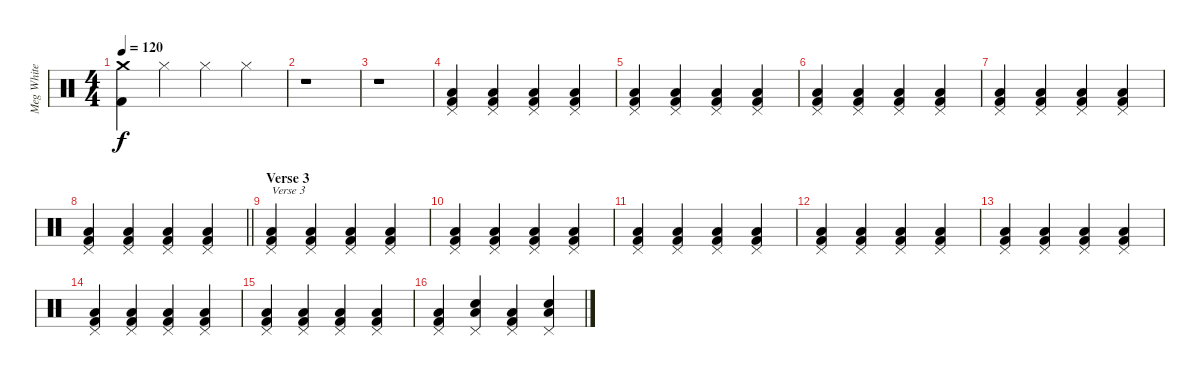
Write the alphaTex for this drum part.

\track ("Meg White" "Meg White") {instrument percussion}
\staff {score}
\articulation defaults
\ts (4 4)
\tempo 120
\clef neutral
\ks c
("Crash medium (hit)" "Kick (hit) 2").4{dy f} "Hi-Hat (closed)".4 "Hi-Hat (closed)".4 "Hi-Hat (closed)".4 |
r.1 |
r.1 |
("Pedal Hi-Hat (hit)" "Low Floor Tom (hit)" "Kick (hit) 2").4 ("Pedal Hi-Hat (hit)" "Low Floor Tom (hit)" "Kick (hit) 2").4 ("Pedal Hi-Hat (hit)" "Low Floor Tom (hit)" "Kick (hit) 2").4 ("Pedal Hi-Hat (hit)" "Low Floor Tom (hit)" "Kick (hit) 2").4 |
("Pedal Hi-Hat (hit)" "Low Floor Tom (hit)" "Kick (hit) 2").4 ("Pedal Hi-Hat (hit)" "Low Floor Tom (hit)" "Kick (hit) 2").4 ("Pedal Hi-Hat (hit)" "Low Floor Tom (hit)" "Kick (hit) 2").4 ("Pedal Hi-Hat (hit)" "Low Floor Tom (hit)" "Kick (hit) 2").4 |
("Pedal Hi-Hat (hit)" "Low Floor Tom (hit)" "Kick (hit) 2").4 ("Pedal Hi-Hat (hit)" "Low Floor Tom (hit)" "Kick (hit) 2").4 ("Pedal Hi-Hat (hit)" "Low Floor Tom (hit)" "Kick (hit) 2").4 ("Pedal Hi-Hat (hit)" "Low Floor Tom (hit)" "Kick (hit) 2").4 |
("Pedal Hi-Hat (hit)" "Low Floor Tom (hit)" "Kick (hit) 2").4 ("Pedal Hi-Hat (hit)" "Low Floor Tom (hit)" "Kick (hit) 2").4 ("Pedal Hi-Hat (hit)" "Low Floor Tom (hit)" "Kick (hit) 2").4 ("Pedal Hi-Hat (hit)" "Low Floor Tom (hit)" "Kick (hit) 2").4 |
\barLineRight lightlight
("Pedal Hi-Hat (hit)" "Low Floor Tom (hit)" "Kick (hit) 2").4 ("Pedal Hi-Hat (hit)" "Low Floor Tom (hit)" "Kick (hit) 2").4 ("Pedal Hi-Hat (hit)" "Low Floor Tom (hit)" "Kick (hit) 2").4 ("Pedal Hi-Hat (hit)" "Low Floor Tom (hit)" "Kick (hit) 2").4 |
\section ("" "Verse 3")
("Pedal Hi-Hat (hit)" "Low Floor Tom (hit)" "Kick (hit) 2").4{txt "Verse 3"} ("Pedal Hi-Hat (hit)" "Low Floor Tom (hit)" "Kick (hit) 2").4 ("Pedal Hi-Hat (hit)" "Low Floor Tom (hit)" "Kick (hit) 2").4 ("Pedal Hi-Hat (hit)" "Low Floor Tom (hit)" "Kick (hit) 2").4 |
("Pedal Hi-Hat (hit)" "Low Floor Tom (hit)" "Kick (hit) 2").4 ("Pedal Hi-Hat (hit)" "Low Floor Tom (hit)" "Kick (hit) 2").4 ("Pedal Hi-Hat (hit)" "Low Floor Tom (hit)" "Kick (hit) 2").4 ("Pedal Hi-Hat (hit)" "Low Floor Tom (hit)" "Kick (hit) 2").4 |
("Pedal Hi-Hat (hit)" "Low Floor Tom (hit)" "Kick (hit) 2").4 ("Pedal Hi-Hat (hit)" "Low Floor Tom (hit)" "Kick (hit) 2").4 ("Pedal Hi-Hat (hit)" "Low Floor Tom (hit)" "Kick (hit) 2").4 ("Pedal Hi-Hat (hit)" "Low Floor Tom (hit)" "Kick (hit) 2").4 |
("Pedal Hi-Hat (hit)" "Low Floor Tom (hit)" "Kick (hit) 2").4 ("Pedal Hi-Hat (hit)" "Low Floor Tom (hit)" "Kick (hit) 2").4 ("Pedal Hi-Hat (hit)" "Low Floor Tom (hit)" "Kick (hit) 2").4 ("Pedal Hi-Hat (hit)" "Low Floor Tom (hit)" "Kick (hit) 2").4 |
("Pedal Hi-Hat (hit)" "Low Floor Tom (hit)" "Kick (hit) 2").4 ("Pedal Hi-Hat (hit)" "Low Floor Tom (hit)" "Kick (hit) 2").4 ("Pedal Hi-Hat (hit)" "Low Floor Tom (hit)" "Kick (hit) 2").4 ("Pedal Hi-Hat (hit)" "Low Floor Tom (hit)" "Kick (hit) 2").4 |
("Pedal Hi-Hat (hit)" "Low Floor Tom (hit)" "Kick (hit) 2").4 ("Pedal Hi-Hat (hit)" "Low Floor Tom (hit)" "Kick (hit) 2").4 ("Pedal Hi-Hat (hit)" "Low Floor Tom (hit)" "Kick (hit) 2").4 ("Pedal Hi-Hat (hit)" "Low Floor Tom (hit)" "Kick (hit) 2").4 |
("Pedal Hi-Hat (hit)" "Low Floor Tom (hit)" "Kick (hit) 2").4 ("Pedal Hi-Hat (hit)" "Low Floor Tom (hit)" "Kick (hit) 2").4 ("Pedal Hi-Hat (hit)" "Low Floor Tom (hit)" "Kick (hit) 2").4 ("Pedal Hi-Hat (hit)" "Low Floor Tom (hit)" "Kick (hit) 2").4 |
("Pedal Hi-Hat (hit)" "Low Floor Tom (hit)" "Kick (hit) 2").4 ("Pedal Hi-Hat (hit)" "Low Floor Tom (hit)" "Snare (hit) 2").4 ("Pedal Hi-Hat (hit)" "Low Floor Tom (hit)" "Kick (hit) 2").4 ("Pedal Hi-Hat (hit)" "Low Floor Tom (hit)" "Snare (hit) 2").4
